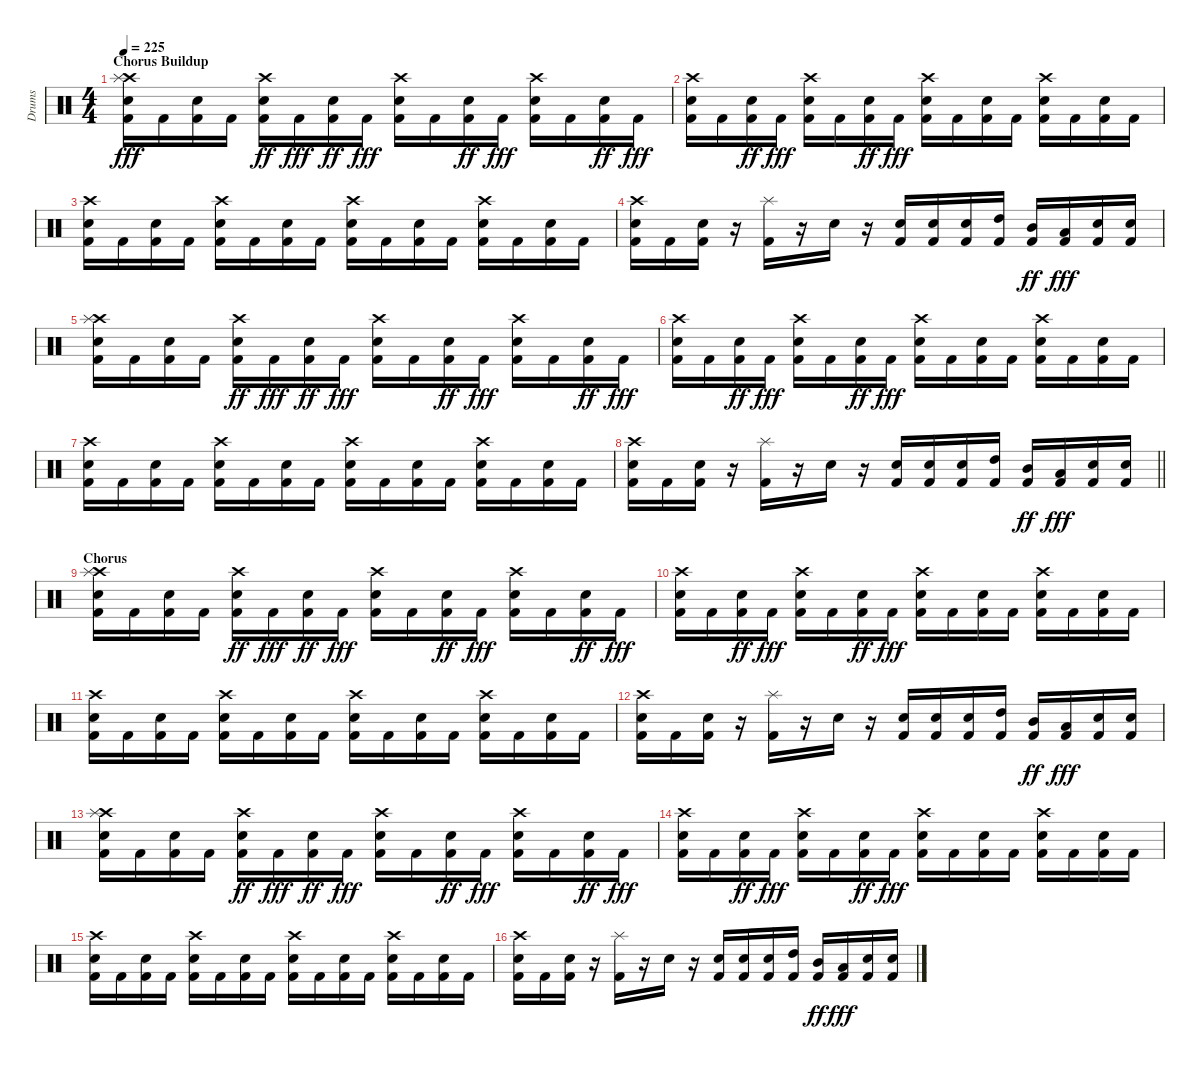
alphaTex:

\track ("Drums" "Drums") {instrument percussion}
\staff {score}
\articulation defaults
\ts (4 4)
\section ("" "Chorus Buildup")
\tempo 225
\clef neutral
\ks c
("Kick (hit) 2" "Snare (hit) 2" "Crash high (hit)" "Splash (hit)").16{dy fff} "Kick (hit) 2".16 ("Snare (hit) 2" "Kick (hit) 2").16 "Kick (hit) 2".16 ("Crash high (hit)" "Kick (hit) 2" "Snare (hit) 2").16{dy ff} "Kick (hit) 2".16{dy fff} ("Kick (hit) 2" "Snare (hit) 2").16{dy ff} "Kick (hit) 2".16{dy fff} ("Kick (hit) 2" "Snare (hit) 2" "Crash high (hit)").16 "Kick (hit) 2".16 ("Kick (hit) 2" "Snare (hit) 2").16{dy ff} "Kick (hit) 2".16{dy fff} ("Kick (hit) 2" "Snare (hit) 2" "Crash high (hit)").16 "Kick (hit) 2".16 ("Kick (hit) 2" "Snare (hit) 2").16{dy ff} "Kick (hit) 2".16{dy fff} |
("Kick (hit) 2" "Snare (hit) 2" "Crash high (hit)").16 "Kick (hit) 2".16 ("Kick (hit) 2" "Snare (hit) 2").16{dy ff} "Kick (hit) 2".16{dy fff} ("Kick (hit) 2" "Snare (hit) 2" "Crash high (hit)").16 "Kick (hit) 2".16 ("Kick (hit) 2" "Snare (hit) 2").16{dy ff} "Kick (hit) 2".16{dy fff} ("Kick (hit) 2" "Snare (hit) 2" "Crash high (hit)").16 "Kick (hit) 2".16 ("Snare (hit) 2" "Kick (hit) 2").16 "Kick (hit) 2".16 ("Crash high (hit)" "Kick (hit) 2" "Snare (hit) 2").16 "Kick (hit) 2".16 ("Snare (hit) 2" "Kick (hit) 2").16 "Kick (hit) 2".16 |
("Kick (hit) 2" "Snare (hit) 2" "Crash high (hit)").16 "Kick (hit) 2".16 ("Kick (hit) 2" "Snare (hit) 2").16 "Kick (hit) 2".16 ("Kick (hit) 2" "Snare (hit) 2" "Crash high (hit)").16 "Kick (hit) 2".16 ("Kick (hit) 2" "Snare (hit) 2").16 "Kick (hit) 2".16 ("Kick (hit) 2" "Snare (hit) 2" "Crash high (hit)").16 "Kick (hit) 2".16 ("Kick (hit) 2" "Snare (hit) 2").16 "Kick (hit) 2".16 ("Kick (hit) 2" "Snare (hit) 2" "Crash high (hit)").16 "Kick (hit) 2".16 ("Kick (hit) 2" "Snare (hit) 2").16 "Kick (hit) 2".16 |
("Kick (hit) 2" "Snare (hit) 2" "Crash high (hit)").16 "Kick (hit) 2".16 ("Kick (hit) 2" "Snare (hit) 2").16 r.16 ("Kick (hit) 2" "Splash (hit)").16 r.16 "Snare (hit) 2".16 r.16 ("Kick (hit) 2" "Snare (hit) 2").16 ("Snare (hit) 2" "Kick (hit) 2").16 ("Snare (hit) 2" "Kick (hit) 2").16 ("High Tom (hit)" "Kick (hit) 2").16 ("Mid Tom (hit)" "Kick (hit) 2").16{dy ff} ("Low Tom (hit)" "Kick (hit) 2").16{dy fff} ("Kick (hit) 2" "Snare (hit) 2").16 ("Kick (hit) 2" "Snare (hit) 2").16 |
("Kick (hit) 2" "Snare (hit) 2" "Crash high (hit)" "Splash (hit)").16 "Kick (hit) 2".16 ("Snare (hit) 2" "Kick (hit) 2").16 "Kick (hit) 2".16 ("Crash high (hit)" "Kick (hit) 2" "Snare (hit) 2").16{dy ff} "Kick (hit) 2".16{dy fff} ("Kick (hit) 2" "Snare (hit) 2").16{dy ff} "Kick (hit) 2".16{dy fff} ("Kick (hit) 2" "Snare (hit) 2" "Crash high (hit)").16 "Kick (hit) 2".16 ("Kick (hit) 2" "Snare (hit) 2").16{dy ff} "Kick (hit) 2".16{dy fff} ("Kick (hit) 2" "Snare (hit) 2" "Crash high (hit)").16 "Kick (hit) 2".16 ("Kick (hit) 2" "Snare (hit) 2").16{dy ff} "Kick (hit) 2".16{dy fff} |
("Kick (hit) 2" "Snare (hit) 2" "Crash high (hit)").16 "Kick (hit) 2".16 ("Kick (hit) 2" "Snare (hit) 2").16{dy ff} "Kick (hit) 2".16{dy fff} ("Kick (hit) 2" "Snare (hit) 2" "Crash high (hit)").16 "Kick (hit) 2".16 ("Kick (hit) 2" "Snare (hit) 2").16{dy ff} "Kick (hit) 2".16{dy fff} ("Kick (hit) 2" "Snare (hit) 2" "Crash high (hit)").16 "Kick (hit) 2".16 ("Snare (hit) 2" "Kick (hit) 2").16 "Kick (hit) 2".16 ("Crash high (hit)" "Kick (hit) 2" "Snare (hit) 2").16 "Kick (hit) 2".16 ("Snare (hit) 2" "Kick (hit) 2").16 "Kick (hit) 2".16 |
("Kick (hit) 2" "Snare (hit) 2" "Crash high (hit)").16 "Kick (hit) 2".16 ("Kick (hit) 2" "Snare (hit) 2").16 "Kick (hit) 2".16 ("Kick (hit) 2" "Snare (hit) 2" "Crash high (hit)").16 "Kick (hit) 2".16 ("Kick (hit) 2" "Snare (hit) 2").16 "Kick (hit) 2".16 ("Kick (hit) 2" "Snare (hit) 2" "Crash high (hit)").16 "Kick (hit) 2".16 ("Kick (hit) 2" "Snare (hit) 2").16 "Kick (hit) 2".16 ("Kick (hit) 2" "Snare (hit) 2" "Crash high (hit)").16 "Kick (hit) 2".16 ("Kick (hit) 2" "Snare (hit) 2").16 "Kick (hit) 2".16 |
\barLineRight lightlight
("Kick (hit) 2" "Snare (hit) 2" "Crash high (hit)").16 "Kick (hit) 2".16 ("Kick (hit) 2" "Snare (hit) 2").16 r.16 ("Kick (hit) 2" "Splash (hit)").16 r.16 "Snare (hit) 2".16 r.16 ("Kick (hit) 2" "Snare (hit) 2").16 ("Snare (hit) 2" "Kick (hit) 2").16 ("Snare (hit) 2" "Kick (hit) 2").16 ("High Tom (hit)" "Kick (hit) 2").16 ("Mid Tom (hit)" "Kick (hit) 2").16{dy ff} ("Low Tom (hit)" "Kick (hit) 2").16{dy fff} ("Kick (hit) 2" "Snare (hit) 2").16 ("Kick (hit) 2" "Snare (hit) 2").16 |
\section ("" "Chorus")
("Kick (hit) 2" "Snare (hit) 2" "Crash high (hit)" "Splash (hit)").16 "Kick (hit) 2".16 ("Snare (hit) 2" "Kick (hit) 2").16 "Kick (hit) 2".16 ("Crash high (hit)" "Kick (hit) 2" "Snare (hit) 2").16{dy ff} "Kick (hit) 2".16{dy fff} ("Kick (hit) 2" "Snare (hit) 2").16{dy ff} "Kick (hit) 2".16{dy fff} ("Kick (hit) 2" "Snare (hit) 2" "Crash high (hit)").16 "Kick (hit) 2".16 ("Kick (hit) 2" "Snare (hit) 2").16{dy ff} "Kick (hit) 2".16{dy fff} ("Kick (hit) 2" "Snare (hit) 2" "Crash high (hit)").16 "Kick (hit) 2".16 ("Kick (hit) 2" "Snare (hit) 2").16{dy ff} "Kick (hit) 2".16{dy fff} |
("Kick (hit) 2" "Snare (hit) 2" "Crash high (hit)").16 "Kick (hit) 2".16 ("Kick (hit) 2" "Snare (hit) 2").16{dy ff} "Kick (hit) 2".16{dy fff} ("Kick (hit) 2" "Snare (hit) 2" "Crash high (hit)").16 "Kick (hit) 2".16 ("Kick (hit) 2" "Snare (hit) 2").16{dy ff} "Kick (hit) 2".16{dy fff} ("Kick (hit) 2" "Snare (hit) 2" "Crash high (hit)").16 "Kick (hit) 2".16 ("Snare (hit) 2" "Kick (hit) 2").16 "Kick (hit) 2".16 ("Crash high (hit)" "Kick (hit) 2" "Snare (hit) 2").16 "Kick (hit) 2".16 ("Snare (hit) 2" "Kick (hit) 2").16 "Kick (hit) 2".16 |
("Kick (hit) 2" "Snare (hit) 2" "Crash high (hit)").16 "Kick (hit) 2".16 ("Kick (hit) 2" "Snare (hit) 2").16 "Kick (hit) 2".16 ("Kick (hit) 2" "Snare (hit) 2" "Crash high (hit)").16 "Kick (hit) 2".16 ("Kick (hit) 2" "Snare (hit) 2").16 "Kick (hit) 2".16 ("Kick (hit) 2" "Snare (hit) 2" "Crash high (hit)").16 "Kick (hit) 2".16 ("Kick (hit) 2" "Snare (hit) 2").16 "Kick (hit) 2".16 ("Kick (hit) 2" "Snare (hit) 2" "Crash high (hit)").16 "Kick (hit) 2".16 ("Kick (hit) 2" "Snare (hit) 2").16 "Kick (hit) 2".16 |
("Kick (hit) 2" "Snare (hit) 2" "Crash high (hit)").16 "Kick (hit) 2".16 ("Kick (hit) 2" "Snare (hit) 2").16 r.16 ("Kick (hit) 2" "Splash (hit)").16 r.16 "Snare (hit) 2".16 r.16 ("Kick (hit) 2" "Snare (hit) 2").16 ("Snare (hit) 2" "Kick (hit) 2").16 ("Snare (hit) 2" "Kick (hit) 2").16 ("High Tom (hit)" "Kick (hit) 2").16 ("Mid Tom (hit)" "Kick (hit) 2").16{dy ff} ("Low Tom (hit)" "Kick (hit) 2").16{dy fff} ("Kick (hit) 2" "Snare (hit) 2").16 ("Kick (hit) 2" "Snare (hit) 2").16 |
("Kick (hit) 2" "Snare (hit) 2" "Crash high (hit)" "Splash (hit)").16 "Kick (hit) 2".16 ("Snare (hit) 2" "Kick (hit) 2").16 "Kick (hit) 2".16 ("Crash high (hit)" "Kick (hit) 2" "Snare (hit) 2").16{dy ff} "Kick (hit) 2".16{dy fff} ("Kick (hit) 2" "Snare (hit) 2").16{dy ff} "Kick (hit) 2".16{dy fff} ("Kick (hit) 2" "Snare (hit) 2" "Crash high (hit)").16 "Kick (hit) 2".16 ("Kick (hit) 2" "Snare (hit) 2").16{dy ff} "Kick (hit) 2".16{dy fff} ("Kick (hit) 2" "Snare (hit) 2" "Crash high (hit)").16 "Kick (hit) 2".16 ("Kick (hit) 2" "Snare (hit) 2").16{dy ff} "Kick (hit) 2".16{dy fff} |
("Kick (hit) 2" "Snare (hit) 2" "Crash high (hit)").16 "Kick (hit) 2".16 ("Kick (hit) 2" "Snare (hit) 2").16{dy ff} "Kick (hit) 2".16{dy fff} ("Kick (hit) 2" "Snare (hit) 2" "Crash high (hit)").16 "Kick (hit) 2".16 ("Kick (hit) 2" "Snare (hit) 2").16{dy ff} "Kick (hit) 2".16{dy fff} ("Kick (hit) 2" "Snare (hit) 2" "Crash high (hit)").16 "Kick (hit) 2".16 ("Snare (hit) 2" "Kick (hit) 2").16 "Kick (hit) 2".16 ("Crash high (hit)" "Kick (hit) 2" "Snare (hit) 2").16 "Kick (hit) 2".16 ("Snare (hit) 2" "Kick (hit) 2").16 "Kick (hit) 2".16 |
("Kick (hit) 2" "Snare (hit) 2" "Crash high (hit)").16 "Kick (hit) 2".16 ("Kick (hit) 2" "Snare (hit) 2").16 "Kick (hit) 2".16 ("Kick (hit) 2" "Snare (hit) 2" "Crash high (hit)").16 "Kick (hit) 2".16 ("Kick (hit) 2" "Snare (hit) 2").16 "Kick (hit) 2".16 ("Kick (hit) 2" "Snare (hit) 2" "Crash high (hit)").16 "Kick (hit) 2".16 ("Kick (hit) 2" "Snare (hit) 2").16 "Kick (hit) 2".16 ("Kick (hit) 2" "Snare (hit) 2" "Crash high (hit)").16 "Kick (hit) 2".16 ("Kick (hit) 2" "Snare (hit) 2").16 "Kick (hit) 2".16 |
("Kick (hit) 2" "Snare (hit) 2" "Crash high (hit)").16 "Kick (hit) 2".16 ("Kick (hit) 2" "Snare (hit) 2").16 r.16 ("Kick (hit) 2" "Splash (hit)").16 r.16 "Snare (hit) 2".16 r.16 ("Kick (hit) 2" "Snare (hit) 2").16 ("Snare (hit) 2" "Kick (hit) 2").16 ("Snare (hit) 2" "Kick (hit) 2").16 ("High Tom (hit)" "Kick (hit) 2").16 ("Mid Tom (hit)" "Kick (hit) 2").16{dy ff} ("Low Tom (hit)" "Kick (hit) 2").16{dy fff} ("Kick (hit) 2" "Snare (hit) 2").16 ("Kick (hit) 2" "Snare (hit) 2").16
